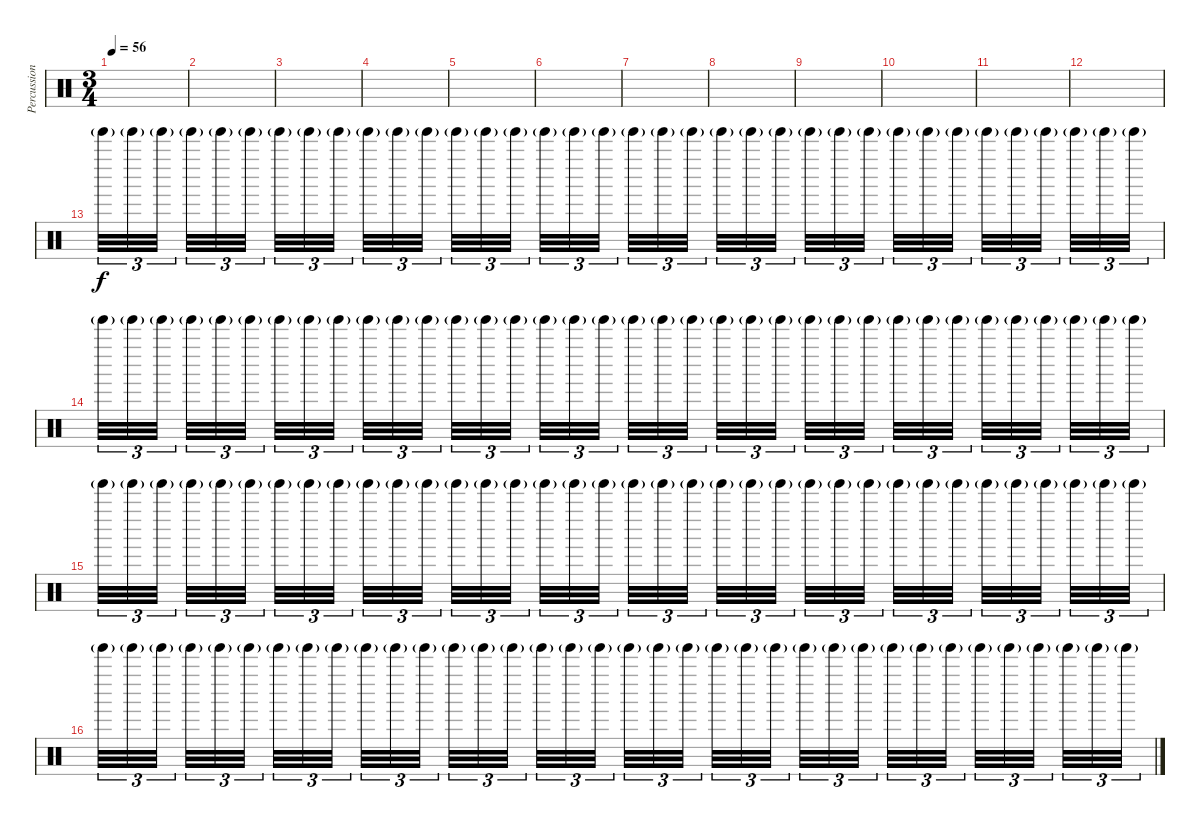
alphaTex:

\track ("Percussion" "Percussion") {instrument percussion}
\staff {score}
\articulation defaults
\ts (3 4)
\tempo 56
\clef neutral
\ks c
|
|
|
|
|
|
|
|
|
|
|
|
"Tinkle Bell (hit)"{g}.32{tu (3 2) volume 2} "Tinkle Bell (hit)"{g}.32{tu (3 2)} "Tinkle Bell (hit)"{g}.32{tu (3 2) beam splitsecondary} "Tinkle Bell (hit)"{g}.32{tu (3 2)} "Tinkle Bell (hit)"{g}.32{tu (3 2)} "Tinkle Bell (hit)"{g}.32{tu (3 2) beam splitsecondary} "Tinkle Bell (hit)"{g}.32{tu (3 2)} "Tinkle Bell (hit)"{g}.32{tu (3 2)} "Tinkle Bell (hit)"{g}.32{tu (3 2) beam splitsecondary} "Tinkle Bell (hit)"{g}.32{tu (3 2)} "Tinkle Bell (hit)"{g}.32{tu (3 2)} "Tinkle Bell (hit)"{g}.32{tu (3 2)} "Tinkle Bell (hit)"{g}.32{tu (3 2)} "Tinkle Bell (hit)"{g}.32{tu (3 2)} "Tinkle Bell (hit)"{g}.32{tu (3 2) beam splitsecondary} "Tinkle Bell (hit)"{g}.32{tu (3 2)} "Tinkle Bell (hit)"{g}.32{tu (3 2)} "Tinkle Bell (hit)"{g}.32{tu (3 2) beam splitsecondary} "Tinkle Bell (hit)"{g}.32{tu (3 2)} "Tinkle Bell (hit)"{g}.32{tu (3 2)} "Tinkle Bell (hit)"{g}.32{tu (3 2) beam splitsecondary} "Tinkle Bell (hit)"{g}.32{tu (3 2)} "Tinkle Bell (hit)"{g}.32{tu (3 2)} "Tinkle Bell (hit)"{g}.32{tu (3 2)} "Tinkle Bell (hit)"{g}.32{tu (3 2)} "Tinkle Bell (hit)"{g}.32{tu (3 2)} "Tinkle Bell (hit)"{g}.32{tu (3 2) beam splitsecondary} "Tinkle Bell (hit)"{g}.32{tu (3 2)} "Tinkle Bell (hit)"{g}.32{tu (3 2)} "Tinkle Bell (hit)"{g}.32{tu (3 2) beam splitsecondary} "Tinkle Bell (hit)"{g}.32{tu (3 2)} "Tinkle Bell (hit)"{g}.32{tu (3 2)} "Tinkle Bell (hit)"{g}.32{tu (3 2) beam splitsecondary} "Tinkle Bell (hit)"{g}.32{tu (3 2)} "Tinkle Bell (hit)"{g}.32{tu (3 2)} "Tinkle Bell (hit)"{g}.32{tu (3 2)} |
"Tinkle Bell (hit)"{g}.32{tu (3 2)} "Tinkle Bell (hit)"{g}.32{tu (3 2)} "Tinkle Bell (hit)"{g}.32{tu (3 2) beam splitsecondary} "Tinkle Bell (hit)"{g}.32{tu (3 2)} "Tinkle Bell (hit)"{g}.32{tu (3 2)} "Tinkle Bell (hit)"{g}.32{tu (3 2) beam splitsecondary} "Tinkle Bell (hit)"{g}.32{tu (3 2)} "Tinkle Bell (hit)"{g}.32{tu (3 2)} "Tinkle Bell (hit)"{g}.32{tu (3 2) beam splitsecondary} "Tinkle Bell (hit)"{g}.32{tu (3 2)} "Tinkle Bell (hit)"{g}.32{tu (3 2)} "Tinkle Bell (hit)"{g}.32{tu (3 2)} "Tinkle Bell (hit)"{g}.32{tu (3 2)} "Tinkle Bell (hit)"{g}.32{tu (3 2)} "Tinkle Bell (hit)"{g}.32{tu (3 2) beam splitsecondary} "Tinkle Bell (hit)"{g}.32{tu (3 2)} "Tinkle Bell (hit)"{g}.32{tu (3 2)} "Tinkle Bell (hit)"{g}.32{tu (3 2) beam splitsecondary} "Tinkle Bell (hit)"{g}.32{tu (3 2)} "Tinkle Bell (hit)"{g}.32{tu (3 2)} "Tinkle Bell (hit)"{g}.32{tu (3 2) beam splitsecondary} "Tinkle Bell (hit)"{g}.32{tu (3 2)} "Tinkle Bell (hit)"{g}.32{tu (3 2)} "Tinkle Bell (hit)"{g}.32{tu (3 2)} "Tinkle Bell (hit)"{g}.32{tu (3 2)} "Tinkle Bell (hit)"{g}.32{tu (3 2)} "Tinkle Bell (hit)"{g}.32{tu (3 2) beam splitsecondary} "Tinkle Bell (hit)"{g}.32{tu (3 2)} "Tinkle Bell (hit)"{g}.32{tu (3 2)} "Tinkle Bell (hit)"{g}.32{tu (3 2) beam splitsecondary} "Tinkle Bell (hit)"{g}.32{tu (3 2)} "Tinkle Bell (hit)"{g}.32{tu (3 2)} "Tinkle Bell (hit)"{g}.32{tu (3 2) beam splitsecondary} "Tinkle Bell (hit)"{g}.32{tu (3 2)} "Tinkle Bell (hit)"{g}.32{tu (3 2)} "Tinkle Bell (hit)"{g}.32{tu (3 2)} |
"Tinkle Bell (hit)"{g}.32{tu (3 2)} "Tinkle Bell (hit)"{g}.32{tu (3 2)} "Tinkle Bell (hit)"{g}.32{tu (3 2) beam splitsecondary} "Tinkle Bell (hit)"{g}.32{tu (3 2)} "Tinkle Bell (hit)"{g}.32{tu (3 2)} "Tinkle Bell (hit)"{g}.32{tu (3 2) beam splitsecondary} "Tinkle Bell (hit)"{g}.32{tu (3 2)} "Tinkle Bell (hit)"{g}.32{tu (3 2)} "Tinkle Bell (hit)"{g}.32{tu (3 2) beam splitsecondary} "Tinkle Bell (hit)"{g}.32{tu (3 2)} "Tinkle Bell (hit)"{g}.32{tu (3 2)} "Tinkle Bell (hit)"{g}.32{tu (3 2)} "Tinkle Bell (hit)"{g}.32{tu (3 2)} "Tinkle Bell (hit)"{g}.32{tu (3 2)} "Tinkle Bell (hit)"{g}.32{tu (3 2) beam splitsecondary} "Tinkle Bell (hit)"{g}.32{tu (3 2)} "Tinkle Bell (hit)"{g}.32{tu (3 2)} "Tinkle Bell (hit)"{g}.32{tu (3 2) beam splitsecondary} "Tinkle Bell (hit)"{g}.32{tu (3 2)} "Tinkle Bell (hit)"{g}.32{tu (3 2)} "Tinkle Bell (hit)"{g}.32{tu (3 2) beam splitsecondary} "Tinkle Bell (hit)"{g}.32{tu (3 2)} "Tinkle Bell (hit)"{g}.32{tu (3 2)} "Tinkle Bell (hit)"{g}.32{tu (3 2)} "Tinkle Bell (hit)"{g}.32{tu (3 2)} "Tinkle Bell (hit)"{g}.32{tu (3 2)} "Tinkle Bell (hit)"{g}.32{tu (3 2) beam splitsecondary} "Tinkle Bell (hit)"{g}.32{tu (3 2)} "Tinkle Bell (hit)"{g}.32{tu (3 2)} "Tinkle Bell (hit)"{g}.32{tu (3 2) beam splitsecondary} "Tinkle Bell (hit)"{g}.32{tu (3 2)} "Tinkle Bell (hit)"{g}.32{tu (3 2)} "Tinkle Bell (hit)"{g}.32{tu (3 2) beam splitsecondary} "Tinkle Bell (hit)"{g}.32{tu (3 2)} "Tinkle Bell (hit)"{g}.32{tu (3 2)} "Tinkle Bell (hit)"{g}.32{tu (3 2)} |
"Tinkle Bell (hit)"{g}.32{tu (3 2)} "Tinkle Bell (hit)"{g}.32{tu (3 2)} "Tinkle Bell (hit)"{g}.32{tu (3 2) beam splitsecondary} "Tinkle Bell (hit)"{g}.32{tu (3 2)} "Tinkle Bell (hit)"{g}.32{tu (3 2)} "Tinkle Bell (hit)"{g}.32{tu (3 2) beam splitsecondary} "Tinkle Bell (hit)"{g}.32{tu (3 2)} "Tinkle Bell (hit)"{g}.32{tu (3 2)} "Tinkle Bell (hit)"{g}.32{tu (3 2) beam splitsecondary} "Tinkle Bell (hit)"{g}.32{tu (3 2)} "Tinkle Bell (hit)"{g}.32{tu (3 2)} "Tinkle Bell (hit)"{g}.32{tu (3 2)} "Tinkle Bell (hit)"{g}.32{tu (3 2)} "Tinkle Bell (hit)"{g}.32{tu (3 2)} "Tinkle Bell (hit)"{g}.32{tu (3 2) beam splitsecondary} "Tinkle Bell (hit)"{g}.32{tu (3 2)} "Tinkle Bell (hit)"{g}.32{tu (3 2)} "Tinkle Bell (hit)"{g}.32{tu (3 2) beam splitsecondary} "Tinkle Bell (hit)"{g}.32{tu (3 2)} "Tinkle Bell (hit)"{g}.32{tu (3 2)} "Tinkle Bell (hit)"{g}.32{tu (3 2) beam splitsecondary} "Tinkle Bell (hit)"{g}.32{tu (3 2)} "Tinkle Bell (hit)"{g}.32{tu (3 2)} "Tinkle Bell (hit)"{g}.32{tu (3 2)} "Tinkle Bell (hit)"{g}.32{tu (3 2)} "Tinkle Bell (hit)"{g}.32{tu (3 2)} "Tinkle Bell (hit)"{g}.32{tu (3 2) beam splitsecondary} "Tinkle Bell (hit)"{g}.32{tu (3 2)} "Tinkle Bell (hit)"{g}.32{tu (3 2)} "Tinkle Bell (hit)"{g}.32{tu (3 2) beam splitsecondary} "Tinkle Bell (hit)"{g}.32{tu (3 2)} "Tinkle Bell (hit)"{g}.32{tu (3 2)} "Tinkle Bell (hit)"{g}.32{tu (3 2) beam splitsecondary} "Tinkle Bell (hit)"{g}.32{tu (3 2)} "Tinkle Bell (hit)"{g}.32{tu (3 2)} "Tinkle Bell (hit)"{g}.32{tu (3 2)}
